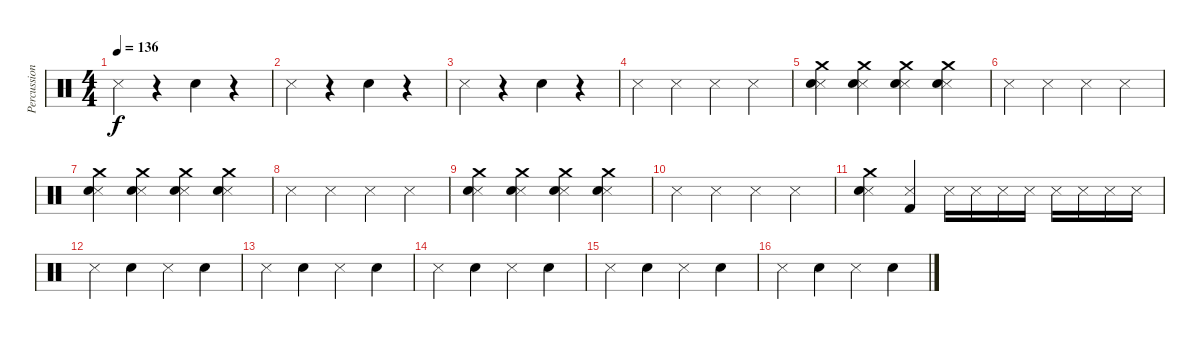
\track ("Percussions" "Percussion") {instrument percussion}
\staff {score}
\articulation defaults
\ts (4 4)
\tempo 136
\clef neutral
\ks c "Snare (side stick) 3".4{dy f}
r.4 "Electric Snare (hit)".4 r.4 |
"Snare (side stick) 3".4 r.4 "Electric Snare (hit)".4 r.4 |
"Snare (side stick) 3".4 r.4 "Electric Snare (hit)".4 r.4 |
"Snare (side stick) 3".4 "Snare (side stick) 3".4 "Snare (side stick) 3".4 "Snare (side stick) 3".4 |
("Snare (side stick) 3" "Electric Snare (hit)" "Crash medium (hit)").4 ("Snare (side stick) 3" "Electric Snare (hit)" "Crash medium (hit)").4 ("Snare (side stick) 3" "Electric Snare (hit)" "Crash medium (hit)").4 ("Snare (side stick) 3" "Electric Snare (hit)" "Crash medium (hit)").4 |
"Snare (side stick) 3".4 "Snare (side stick) 3".4 "Snare (side stick) 3".4 "Snare (side stick) 3".4 |
("Snare (side stick) 3" "Electric Snare (hit)" "Crash medium (hit)").4 ("Snare (side stick) 3" "Electric Snare (hit)" "Crash medium (hit)").4 ("Snare (side stick) 3" "Electric Snare (hit)" "Crash medium (hit)").4 ("Snare (side stick) 3" "Electric Snare (hit)" "Crash medium (hit)").4 |
"Snare (side stick) 3".4 "Snare (side stick) 3".4 "Snare (side stick) 3".4 "Snare (side stick) 3".4 |
("Snare (side stick) 3" "Electric Snare (hit)" "Crash medium (hit)").4 ("Snare (side stick) 3" "Electric Snare (hit)" "Crash medium (hit)").4 ("Snare (side stick) 3" "Electric Snare (hit)" "Crash medium (hit)").4 ("Snare (side stick) 3" "Electric Snare (hit)" "Crash medium (hit)").4 |
"Snare (side stick) 3".4 "Snare (side stick) 3".4 "Snare (side stick) 3".4 "Snare (side stick) 3".4 |
("Snare (side stick) 3" "Electric Snare (hit)" "Crash medium (hit)").4 ("Snare (side stick) 3" "Kick (hit) 2").4 "Snare (side stick) 3".16 "Snare (side stick) 3".16 "Snare (side stick) 3".16 "Snare (side stick) 3".16 "Snare (side stick) 3".16 "Snare (side stick) 3".16 "Snare (side stick) 3".16 "Snare (side stick) 3".16 |
"Snare (side stick) 3".4 "Electric Snare (hit)".4 "Snare (side stick) 3".4 "Electric Snare (hit)".4 |
"Snare (side stick) 3".4 "Electric Snare (hit)".4 "Snare (side stick) 3".4 "Electric Snare (hit)".4 |
"Snare (side stick) 3".4 "Electric Snare (hit)".4 "Snare (side stick) 3".4 "Electric Snare (hit)".4 |
"Snare (side stick) 3".4 "Electric Snare (hit)".4 "Snare (side stick) 3".4 "Electric Snare (hit)".4 |
"Snare (side stick) 3".4 "Electric Snare (hit)".4 "Snare (side stick) 3".4 "Electric Snare (hit)".4
